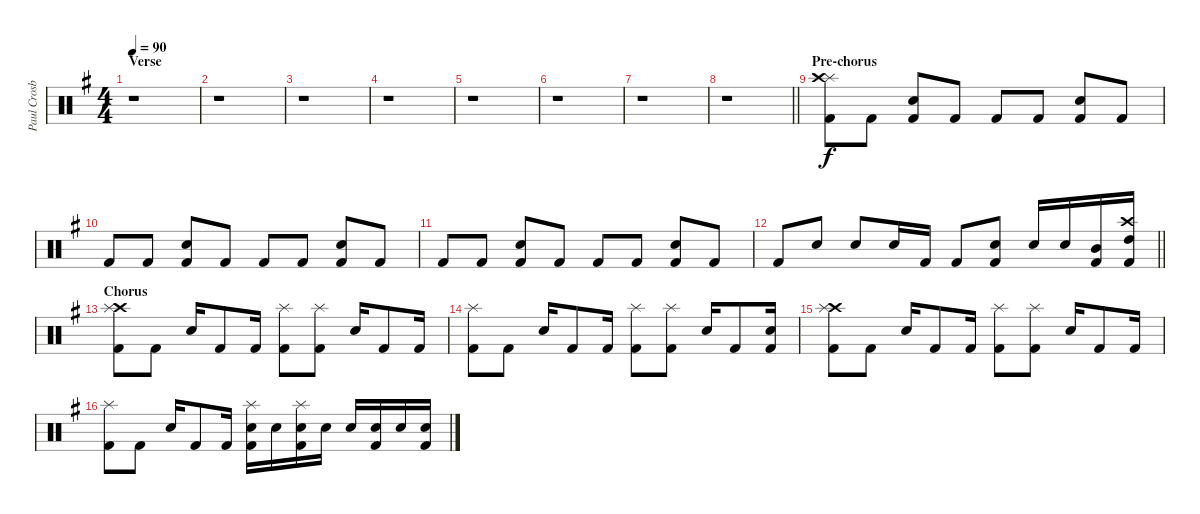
\track ("Paul Crosby (Drums)" "Paul Crosb") {instrument percussion}
\staff {score}
\articulation defaults
\ts (4 4)
\section ("" "Verse")
\tempo 90
\clef neutral
\ks g
r.1{dy f} |
r.1 |
r.1 |
r.1 |
r.1 |
r.1 |
r.1 |
\barLineRight lightlight
r.1 |
\section ("" "Pre-chorus")
("Splash (hit)" "Kick (hit) 2" "Crash high (hit)").8 "Kick (hit) 2".8 ("Electric Snare (hit)" "Kick (hit) 2").8 "Kick (hit) 2".8 "Kick (hit) 2".8 "Kick (hit) 2".8 ("Electric Snare (hit)" "Kick (hit) 2").8 "Kick (hit) 2".8 |
"Kick (hit) 2".8 "Kick (hit) 2".8 ("Electric Snare (hit)" "Kick (hit) 2").8 "Kick (hit) 2".8 "Kick (hit) 2".8 "Kick (hit) 2".8 ("Electric Snare (hit)" "Kick (hit) 2").8 "Kick (hit) 2".8 |
"Kick (hit) 2".8 "Kick (hit) 2".8 ("Electric Snare (hit)" "Kick (hit) 2").8 "Kick (hit) 2".8 "Kick (hit) 2".8 "Kick (hit) 2".8 ("Electric Snare (hit)" "Kick (hit) 2").8 "Kick (hit) 2".8 |
\barLineRight lightlight "Kick (hit) 2".8 "Electric Snare (hit)".8 "Electric Snare (hit)".8 "Electric Snare (hit)".16 "Kick (hit) 2".16 "Kick (hit) 2".8
("Electric Snare (hit)" "Kick (hit) 2").8 "Electric Snare (hit)".16 "Electric Snare (hit)".16 ("Mid Tom (hit)" "Kick (hit) 2").16 ("High Tom (hit)" "Kick (hit) 2" "Crash high (hit)").16 |
\section ("" "Chorus")
("Crash high (hit)" "Kick (hit) 2" "Splash (hit)").8 "Kick (hit) 2".8 "Electric Snare (hit)".16 "Kick (hit) 2".8 "Kick (hit) 2".16 ("Kick (hit) 2" "Splash (hit)").8 ("Kick (hit) 2" "Splash (hit)").8 "Electric Snare (hit)".16 "Kick (hit) 2".8 "Kick (hit) 2".16 |
("Kick (hit) 2" "Splash (hit)").8 "Kick (hit) 2".8 "Electric Snare (hit)".16 "Kick (hit) 2".8 "Kick (hit) 2".16 ("Kick (hit) 2" "Splash (hit)").8 ("Kick (hit) 2" "Splash (hit)").8 "Electric Snare (hit)".16 "Kick (hit) 2".8 ("Electric Snare (hit)" "Kick (hit) 2").16 |
("Crash high (hit)" "Kick (hit) 2" "Splash (hit)").8 "Kick (hit) 2".8 "Electric Snare (hit)".16 "Kick (hit) 2".8 "Kick (hit) 2".16 ("Kick (hit) 2" "Splash (hit)").8 ("Kick (hit) 2" "Splash (hit)").8 "Electric Snare (hit)".16 "Kick (hit) 2".8 "Kick (hit) 2".16 |
("Kick (hit) 2" "Splash (hit)").8 "Kick (hit) 2".8 "Electric Snare (hit)".16 "Kick (hit) 2".8 "Kick (hit) 2".16 ("Electric Snare (hit)" "Kick (hit) 2" "Splash (hit)").16 "Electric Snare (hit)".16 ("Electric Snare (hit)" "Kick (hit) 2" "Splash (hit)").16 "Electric Snare (hit)".16 "Electric Snare (hit)".16 ("Electric Snare (hit)" "Kick (hit) 2").16 "Electric Snare (hit)".16 ("Electric Snare (hit)" "Kick (hit) 2").16
